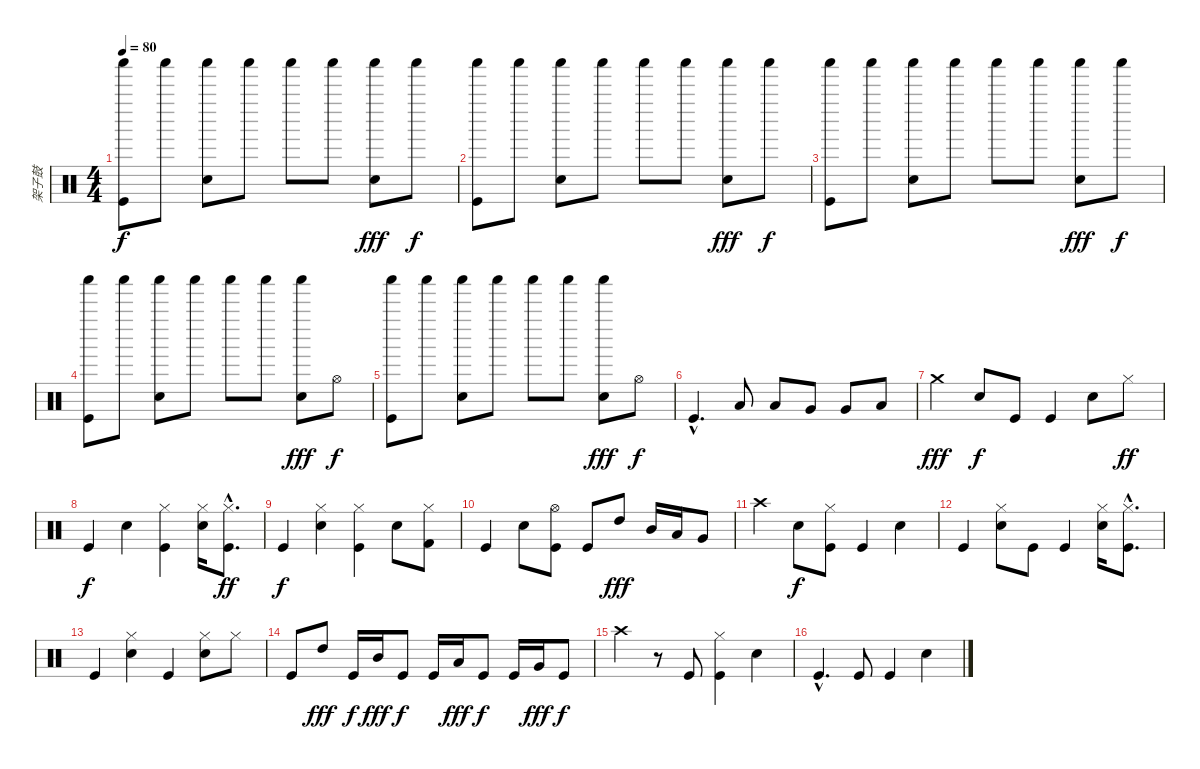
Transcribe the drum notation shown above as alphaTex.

\track ("架子鼓" "架子鼓") {instrument percussion}
\staff {score}
\articulation defaults
\ts (4 4)
\tempo 80
\clef neutral
\ks c
("Shaker (hit)" "Kick (hit)").8{dy f} "Shaker (hit)".8 ("Shaker (hit)" "Snare (hit)").8 "Shaker (hit)".8 "Shaker (hit)".8 "Shaker (hit)".8 ("Shaker (hit)" "Snare (hit)").8{dy fff} "Shaker (hit)".8{dy f} |
("Shaker (hit)" "Kick (hit)").8 "Shaker (hit)".8 ("Shaker (hit)" "Snare (hit)").8 "Shaker (hit)".8 "Shaker (hit)".8 "Shaker (hit)".8 ("Shaker (hit)" "Snare (hit)").8{dy fff} "Shaker (hit)".8{dy f} |
("Shaker (hit)" "Kick (hit)").8 "Shaker (hit)".8 ("Shaker (hit)" "Snare (hit)").8 "Shaker (hit)".8 "Shaker (hit)".8 "Shaker (hit)".8 ("Shaker (hit)" "Snare (hit)").8{dy fff} "Shaker (hit)".8{dy f} |
("Shaker (hit)" "Kick (hit)").8 "Shaker (hit)".8 ("Shaker (hit)" "Snare (hit)").8 "Shaker (hit)".8 "Shaker (hit)".8 "Shaker (hit)".8 ("Shaker (hit)" "Snare (hit)").8{dy fff} "Hi-Hat (open)".8{dy f} |
("Shaker (hit)" "Kick (hit)").8 "Shaker (hit)".8 ("Shaker (hit)" "Snare (hit)").8 "Shaker (hit)".8 "Shaker (hit)".8 "Shaker (hit)".8 ("Shaker (hit)" "Snare (hit)").8{dy fff} "Hi-Hat (open)".8{dy f} |
"Kick (hit)"{hac}.4{d} "Low Tom (hit)".8 "Low Tom (hit)".8 "Very Low Tom (hit)".8 "Very Low Tom (hit)".8 "Low Floor Tom (hit)".8 |
"Crash medium (hit)".4{dy fff} "Snare (hit) 2".8{dy f} "Kick (hit)".8 "Kick (hit)".4 "Snare (hit) 2".8 "Hi-Hat (closed)".8{dy ff} |
"Kick (hit)".4{dy f} "Snare (hit) 2".4 ("Hi-Hat (closed)" "Kick (hit)").4 ("Hi-Hat (closed)" "Snare (hit) 2").16 ("Hi-Hat (closed)"{hac} "Kick (hit)"{hac}).8{d dy ff} |
"Kick (hit)".4{dy f} ("Hi-Hat (closed)" "Snare (hit) 2").4 ("Hi-Hat (closed)" "Kick (hit)").4 "Snare (hit) 2".8 ("Hi-Hat (closed)" "Kick (hit) 2").8 |
"Kick (hit)".4 "Snare (hit) 2".8 ("Hi-Hat (open)" "Kick (hit)").8 "Kick (hit)".8 "High Tom (hit)".8{dy fff} "Mid Tom (hit)".16 "Low Tom (hit)".16 "Very Low Tom (hit)".8 |
"Crash high (hit)".4 "Snare (hit) 2".8{dy f} ("Hi-Hat (closed)" "Kick (hit)").8 "Kick (hit)".4 "Snare (hit) 2".4 |
"Kick (hit)".4 ("Hi-Hat (closed)" "Snare (hit) 2").8 "Kick (hit)".8 "Kick (hit)".4 ("Hi-Hat (closed)" "Snare (hit) 2").16 ("Hi-Hat (closed)"{hac} "Kick (hit)"{hac}).8{d} |
"Kick (hit)".4 ("Hi-Hat (closed)" "Snare (hit) 2").4 "Kick (hit)".4 ("Hi-Hat (closed)" "Snare (hit) 2").8 "Hi-Hat (closed)".8 |
"Kick (hit)".8{volume 16} "High Tom (hit)".8{dy fff} "Kick (hit)".16{dy f} "Mid Tom (hit)".16{dy fff} "Kick (hit)".8{dy f} "Kick (hit)".16 "Low Tom (hit)".16{dy fff} "Kick (hit)".8{dy f} "Kick (hit)".16 "Very Low Tom (hit)".16{dy fff} "Kick (hit)".8{dy f} |
"Crash high (hit)".4 r.8 "Kick (hit)".8{volume 12} ("Hi-Hat (closed)" "Kick (hit)").4 "Snare (hit)".4 |
"Kick (hit)"{hac}.4{d} "Kick (hit)".8 "Kick (hit)".4 "Snare (hit)".4
